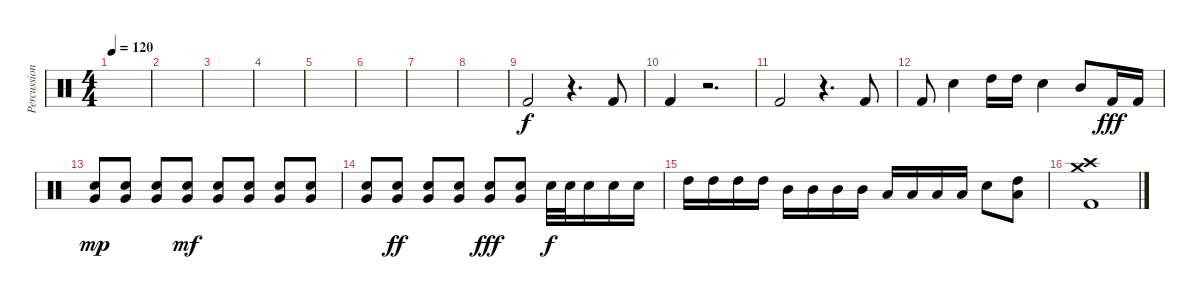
\track ("Percussion" "Percussion") {instrument percussion}
\staff {score}
\articulation defaults
\ts (4 4)
\tempo 120
\clef neutral
\ks c
|
|
|
|
|
|
|
|
"Kick (hit) 2".2 r.4{d} "Kick (hit) 2".8 |
"Kick (hit) 2".4 r.2{d} |
"Kick (hit) 2".2 r.4{d} "Kick (hit) 2".8 |
"Kick (hit) 2".8 "Electric Snare (hit)".4 "High Tom (hit)".16 "High Tom (hit)".16 "Electric Snare (hit)".4 "Mid Tom (hit)".8 "Kick (hit) 2".16{dy fff} "Kick (hit) 2".16 |
("Electric Snare (hit)" "Very Low Tom (hit)").8{dy mp} ("Electric Snare (hit)" "Very Low Tom (hit)").8 ("Electric Snare (hit)" "Very Low Tom (hit)").8 ("Electric Snare (hit)" "Very Low Tom (hit)").8{dy mf} ("Electric Snare (hit)" "Very Low Tom (hit)").8 ("Electric Snare (hit)" "Very Low Tom (hit)").8 ("Electric Snare (hit)" "Very Low Tom (hit)").8 ("Electric Snare (hit)" "Very Low Tom (hit)").8 |
("Electric Snare (hit)" "Very Low Tom (hit)").8 ("Electric Snare (hit)" "Very Low Tom (hit)").8{dy ff} ("Electric Snare (hit)" "Very Low Tom (hit)").8 ("Electric Snare (hit)" "Very Low Tom (hit)").8 ("Electric Snare (hit)" "Very Low Tom (hit)").8{dy fff} ("Electric Snare (hit)" "Very Low Tom (hit)").8 "Electric Snare (hit)".32{dy f} "Electric Snare (hit)".32 "Electric Snare (hit)".16 "Electric Snare (hit)".16 "Electric Snare (hit)".16 |
"High Tom (hit)".16 "High Tom (hit)".16 "High Tom (hit)".16 "High Tom (hit)".16 "Mid Tom (hit)".16 "Mid Tom (hit)".16 "Mid Tom (hit)".16 "Mid Tom (hit)".16 "Low Tom (hit)".16 "Low Tom (hit)".16 "Low Tom (hit)".16 "Low Tom (hit)".16 "Electric Snare (hit)".8 ("High Tom (hit)" "Low Tom (hit)").8 |
("Crash high (hit)" "Crash medium (hit)" "Kick (hit) 2").1
